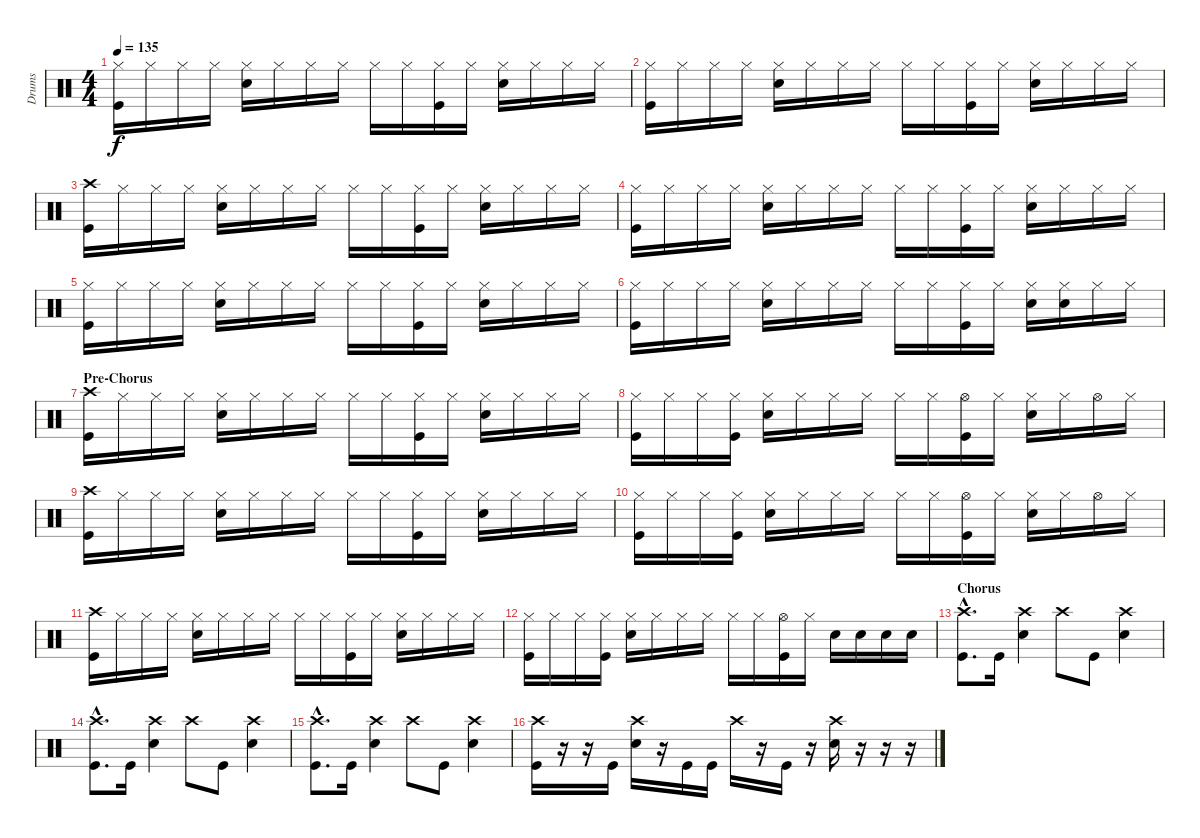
\track ("Drums" "Drums") {instrument percussion}
\staff {score}
\articulation defaults
\ts (4 4)
\tempo 135
\clef neutral
\ks c
("Hi-Hat (closed)" "Kick (hit)").16{dy f} "Hi-Hat (closed)".16 "Hi-Hat (closed)".16 "Hi-Hat (closed)".16 ("Hi-Hat (closed)" "Electric Snare (hit)").16 "Hi-Hat (closed)".16 "Hi-Hat (closed)".16 "Hi-Hat (closed)".16 "Hi-Hat (closed)".16 "Hi-Hat (closed)".16 ("Hi-Hat (closed)" "Kick (hit)").16 "Hi-Hat (closed)".16 ("Hi-Hat (closed)" "Electric Snare (hit)").16 "Hi-Hat (closed)".16 "Hi-Hat (closed)".16 "Hi-Hat (closed)".16 |
("Hi-Hat (closed)" "Kick (hit)").16 "Hi-Hat (closed)".16 "Hi-Hat (closed)".16 "Hi-Hat (closed)".16 ("Hi-Hat (closed)" "Electric Snare (hit)").16 "Hi-Hat (closed)".16 "Hi-Hat (closed)".16 "Hi-Hat (closed)".16 "Hi-Hat (closed)".16 "Hi-Hat (closed)".16 ("Hi-Hat (closed)" "Kick (hit)").16 "Hi-Hat (closed)".16 ("Hi-Hat (closed)" "Electric Snare (hit)").16 "Hi-Hat (closed)".16 "Hi-Hat (closed)".16 "Hi-Hat (closed)".16 |
("Crash high (hit)" "Kick (hit)").16 "Hi-Hat (closed)".16 "Hi-Hat (closed)".16 "Hi-Hat (closed)".16 ("Hi-Hat (closed)" "Electric Snare (hit)").16 "Hi-Hat (closed)".16 "Hi-Hat (closed)".16 "Hi-Hat (closed)".16 "Hi-Hat (closed)".16 "Hi-Hat (closed)".16 ("Hi-Hat (closed)" "Kick (hit)").16 "Hi-Hat (closed)".16 ("Hi-Hat (closed)" "Electric Snare (hit)").16 "Hi-Hat (closed)".16 "Hi-Hat (closed)".16 "Hi-Hat (closed)".16 |
("Hi-Hat (closed)" "Kick (hit)").16 "Hi-Hat (closed)".16 "Hi-Hat (closed)".16 "Hi-Hat (closed)".16 ("Hi-Hat (closed)" "Electric Snare (hit)").16 "Hi-Hat (closed)".16 "Hi-Hat (closed)".16 "Hi-Hat (closed)".16 "Hi-Hat (closed)".16 "Hi-Hat (closed)".16 ("Hi-Hat (closed)" "Kick (hit)").16 "Hi-Hat (closed)".16 ("Hi-Hat (closed)" "Electric Snare (hit)").16 "Hi-Hat (closed)".16 "Hi-Hat (closed)".16 "Hi-Hat (closed)".16 |
("Hi-Hat (closed)" "Kick (hit)").16 "Hi-Hat (closed)".16 "Hi-Hat (closed)".16 "Hi-Hat (closed)".16 ("Hi-Hat (closed)" "Electric Snare (hit)").16 "Hi-Hat (closed)".16 "Hi-Hat (closed)".16 "Hi-Hat (closed)".16 "Hi-Hat (closed)".16 "Hi-Hat (closed)".16 ("Hi-Hat (closed)" "Kick (hit)").16 "Hi-Hat (closed)".16 ("Hi-Hat (closed)" "Electric Snare (hit)").16 "Hi-Hat (closed)".16 "Hi-Hat (closed)".16 "Hi-Hat (closed)".16 |
("Hi-Hat (closed)" "Kick (hit)").16 "Hi-Hat (closed)".16 "Hi-Hat (closed)".16 "Hi-Hat (closed)".16 ("Hi-Hat (closed)" "Electric Snare (hit)").16 "Hi-Hat (closed)".16 "Hi-Hat (closed)".16 "Hi-Hat (closed)".16 "Hi-Hat (closed)".16 "Hi-Hat (closed)".16 ("Hi-Hat (closed)" "Kick (hit)").16 "Hi-Hat (closed)".16 ("Hi-Hat (closed)" "Electric Snare (hit)").16 ("Hi-Hat (closed)" "Electric Snare (hit)").16 "Hi-Hat (closed)".16 "Hi-Hat (closed)".16 |
\section ("" "Pre-Chorus")
("Crash high (hit)" "Kick (hit)").16 "Hi-Hat (closed)".16 "Hi-Hat (closed)".16 "Hi-Hat (closed)".16 ("Hi-Hat (closed)" "Electric Snare (hit)").16 "Hi-Hat (closed)".16 "Hi-Hat (closed)".16 "Hi-Hat (closed)".16 "Hi-Hat (closed)".16 "Hi-Hat (closed)".16 ("Hi-Hat (closed)" "Kick (hit)").16 "Hi-Hat (closed)".16 ("Hi-Hat (closed)" "Electric Snare (hit)").16 "Hi-Hat (closed)".16 "Hi-Hat (closed)".16 "Hi-Hat (closed)".16 |
("Hi-Hat (closed)" "Kick (hit)").16 "Hi-Hat (closed)".16 "Hi-Hat (closed)".16 ("Hi-Hat (closed)" "Kick (hit)").16 ("Hi-Hat (closed)" "Electric Snare (hit)").16 "Hi-Hat (closed)".16 "Hi-Hat (closed)".16 "Hi-Hat (closed)".16 "Hi-Hat (closed)".16 "Hi-Hat (closed)".16 ("Hi-Hat (open)" "Kick (hit)").16 "Hi-Hat (closed)".16 ("Hi-Hat (closed)" "Electric Snare (hit)").16 "Hi-Hat (closed)".16 "Hi-Hat (open)".16 "Hi-Hat (closed)".16 |
("Crash high (hit)" "Kick (hit)").16 "Hi-Hat (closed)".16 "Hi-Hat (closed)".16 "Hi-Hat (closed)".16 ("Hi-Hat (closed)" "Electric Snare (hit)").16 "Hi-Hat (closed)".16 "Hi-Hat (closed)".16 "Hi-Hat (closed)".16 "Hi-Hat (closed)".16 "Hi-Hat (closed)".16 ("Hi-Hat (closed)" "Kick (hit)").16 "Hi-Hat (closed)".16 ("Hi-Hat (closed)" "Electric Snare (hit)").16 "Hi-Hat (closed)".16 "Hi-Hat (closed)".16 "Hi-Hat (closed)".16 |
("Hi-Hat (closed)" "Kick (hit)").16 "Hi-Hat (closed)".16 "Hi-Hat (closed)".16 ("Hi-Hat (closed)" "Kick (hit)").16 ("Hi-Hat (closed)" "Electric Snare (hit)").16 "Hi-Hat (closed)".16 "Hi-Hat (closed)".16 "Hi-Hat (closed)".16 "Hi-Hat (closed)".16 "Hi-Hat (closed)".16 ("Hi-Hat (open)" "Kick (hit)").16 "Hi-Hat (closed)".16 ("Hi-Hat (closed)" "Electric Snare (hit)").16 "Hi-Hat (closed)".16 "Hi-Hat (open)".16 "Hi-Hat (closed)".16 |
("Crash high (hit)" "Kick (hit)").16 "Hi-Hat (closed)".16 "Hi-Hat (closed)".16 "Hi-Hat (closed)".16 ("Hi-Hat (closed)" "Electric Snare (hit)").16 "Hi-Hat (closed)".16 "Hi-Hat (closed)".16 "Hi-Hat (closed)".16 "Hi-Hat (closed)".16 "Hi-Hat (closed)".16 ("Hi-Hat (closed)" "Kick (hit)").16 "Hi-Hat (closed)".16 ("Hi-Hat (closed)" "Electric Snare (hit)").16 "Hi-Hat (closed)".16 "Hi-Hat (closed)".16 "Hi-Hat (closed)".16 |
("Hi-Hat (closed)" "Kick (hit)").16 "Hi-Hat (closed)".16 "Hi-Hat (closed)".16 ("Hi-Hat (closed)" "Kick (hit)").16 ("Hi-Hat (closed)" "Electric Snare (hit)").16 "Hi-Hat (closed)".16 "Hi-Hat (closed)".16 "Hi-Hat (closed)".16 "Hi-Hat (closed)".16 "Hi-Hat (closed)".16 ("Hi-Hat (open)" "Kick (hit)").16 "Hi-Hat (closed)".16 "Electric Snare (hit)".16 "Electric Snare (hit)".16 "Electric Snare (hit)".16 "Electric Snare (hit)".16 |
\section ("" "Chorus")
("Crash high (hit)"{hac} "Kick (hit)"{hac}).8{d} "Kick (hit)".16 ("Crash high (hit)" "Electric Snare (hit)").4 "Crash high (hit)".8 "Kick (hit)".8 ("Crash high (hit)" "Electric Snare (hit)").4 |
("Crash high (hit)"{hac} "Kick (hit)"{hac}).8{d} "Kick (hit)".16 ("Crash high (hit)" "Electric Snare (hit)").4 "Crash high (hit)".8 "Kick (hit)".8 ("Crash high (hit)" "Electric Snare (hit)").4 |
("Crash high (hit)"{hac} "Kick (hit)"{hac}).8{d} "Kick (hit)".16 ("Crash high (hit)" "Electric Snare (hit)").4 "Crash high (hit)".8 "Kick (hit)".8 ("Crash high (hit)" "Electric Snare (hit)").4 |
("Crash high (hit)" "Kick (hit)").16 r.16 r.16 "Kick (hit)".16 ("Crash high (hit)" "Electric Snare (hit)").16 r.16 "Kick (hit)".16 "Kick (hit)".16 "Crash high (hit)".16 r.16 "Kick (hit)".16 r.16 ("Crash high (hit)" "Electric Snare (hit)").16 r.16 r.16 r.16
